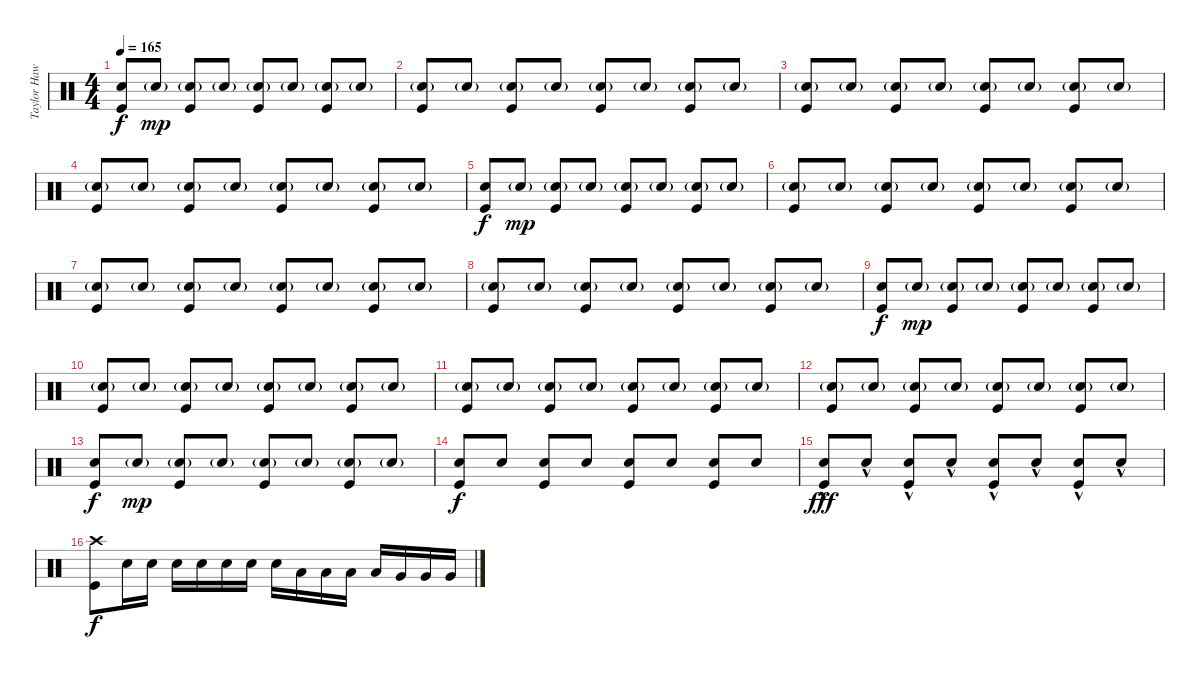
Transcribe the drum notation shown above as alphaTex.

\track ("Taylor Hawkins - Drums" "Taylor Haw") {instrument percussion}
\staff {score}
\articulation defaults
\ts (4 4)
\tempo 165
\clef neutral
\ks c
("Electric Snare (hit)" "Kick (hit)").8{dy f} "Electric Snare (hit)"{g}.8{dy mp} ("Electric Snare (hit)"{g} "Kick (hit)").8 "Electric Snare (hit)"{g}.8 ("Electric Snare (hit)"{g} "Kick (hit)").8 "Electric Snare (hit)"{g}.8 ("Electric Snare (hit)"{g} "Kick (hit)").8 "Electric Snare (hit)"{g}.8 |
("Electric Snare (hit)"{g} "Kick (hit)").8 "Electric Snare (hit)"{g}.8 ("Electric Snare (hit)"{g} "Kick (hit)").8 "Electric Snare (hit)"{g}.8 ("Electric Snare (hit)"{g} "Kick (hit)").8 "Electric Snare (hit)"{g}.8 ("Electric Snare (hit)"{g} "Kick (hit)").8 "Electric Snare (hit)"{g}.8 |
("Electric Snare (hit)"{g} "Kick (hit)").8 "Electric Snare (hit)"{g}.8 ("Electric Snare (hit)"{g} "Kick (hit)").8 "Electric Snare (hit)"{g}.8 ("Electric Snare (hit)"{g} "Kick (hit)").8 "Electric Snare (hit)"{g}.8 ("Electric Snare (hit)"{g} "Kick (hit)").8 "Electric Snare (hit)"{g}.8 |
("Electric Snare (hit)"{g} "Kick (hit)").8 "Electric Snare (hit)"{g}.8 ("Electric Snare (hit)"{g} "Kick (hit)").8 "Electric Snare (hit)"{g}.8 ("Electric Snare (hit)"{g} "Kick (hit)").8 "Electric Snare (hit)"{g}.8 ("Electric Snare (hit)"{g} "Kick (hit)").8 "Electric Snare (hit)"{g}.8 |
("Electric Snare (hit)" "Kick (hit)").8{dy f} "Electric Snare (hit)"{g}.8{dy mp} ("Electric Snare (hit)"{g} "Kick (hit)").8 "Electric Snare (hit)"{g}.8 ("Electric Snare (hit)"{g} "Kick (hit)").8 "Electric Snare (hit)"{g}.8 ("Electric Snare (hit)"{g} "Kick (hit)").8 "Electric Snare (hit)"{g}.8 |
("Electric Snare (hit)"{g} "Kick (hit)").8 "Electric Snare (hit)"{g}.8 ("Electric Snare (hit)"{g} "Kick (hit)").8 "Electric Snare (hit)"{g}.8 ("Electric Snare (hit)"{g} "Kick (hit)").8 "Electric Snare (hit)"{g}.8 ("Electric Snare (hit)"{g} "Kick (hit)").8 "Electric Snare (hit)"{g}.8 |
("Electric Snare (hit)"{g} "Kick (hit)").8 "Electric Snare (hit)"{g}.8 ("Electric Snare (hit)"{g} "Kick (hit)").8 "Electric Snare (hit)"{g}.8 ("Electric Snare (hit)"{g} "Kick (hit)").8 "Electric Snare (hit)"{g}.8 ("Electric Snare (hit)"{g} "Kick (hit)").8 "Electric Snare (hit)"{g}.8 |
("Electric Snare (hit)"{g} "Kick (hit)").8 "Electric Snare (hit)"{g}.8 ("Electric Snare (hit)"{g} "Kick (hit)").8 "Electric Snare (hit)"{g}.8 ("Electric Snare (hit)"{g} "Kick (hit)").8 "Electric Snare (hit)"{g}.8 ("Electric Snare (hit)"{g} "Kick (hit)").8 "Electric Snare (hit)"{g}.8 |
("Electric Snare (hit)" "Kick (hit)").8{dy f} "Electric Snare (hit)"{g}.8{dy mp} ("Electric Snare (hit)"{g} "Kick (hit)").8 "Electric Snare (hit)"{g}.8 ("Electric Snare (hit)"{g} "Kick (hit)").8 "Electric Snare (hit)"{g}.8 ("Electric Snare (hit)"{g} "Kick (hit)").8 "Electric Snare (hit)"{g}.8 |
("Electric Snare (hit)"{g} "Kick (hit)").8 "Electric Snare (hit)"{g}.8 ("Electric Snare (hit)"{g} "Kick (hit)").8 "Electric Snare (hit)"{g}.8 ("Electric Snare (hit)"{g} "Kick (hit)").8 "Electric Snare (hit)"{g}.8 ("Electric Snare (hit)"{g} "Kick (hit)").8 "Electric Snare (hit)"{g}.8 |
("Electric Snare (hit)"{g} "Kick (hit)").8 "Electric Snare (hit)"{g}.8 ("Electric Snare (hit)"{g} "Kick (hit)").8 "Electric Snare (hit)"{g}.8 ("Electric Snare (hit)"{g} "Kick (hit)").8 "Electric Snare (hit)"{g}.8 ("Electric Snare (hit)"{g} "Kick (hit)").8 "Electric Snare (hit)"{g}.8 |
("Electric Snare (hit)"{g} "Kick (hit)").8 "Electric Snare (hit)"{g}.8 ("Electric Snare (hit)"{g} "Kick (hit)").8 "Electric Snare (hit)"{g}.8 ("Electric Snare (hit)"{g} "Kick (hit)").8 "Electric Snare (hit)"{g}.8 ("Electric Snare (hit)"{g} "Kick (hit)").8 "Electric Snare (hit)"{g}.8 |
("Electric Snare (hit)" "Kick (hit)").8{dy f} "Electric Snare (hit)"{g}.8{dy mp} ("Electric Snare (hit)"{g} "Kick (hit)").8 "Electric Snare (hit)"{g}.8 ("Electric Snare (hit)"{g} "Kick (hit)").8 "Electric Snare (hit)"{g}.8 ("Electric Snare (hit)"{g} "Kick (hit)").8 "Electric Snare (hit)"{g}.8 |
("Electric Snare (hit)" "Kick (hit)").8{dy f} "Electric Snare (hit)".8 ("Electric Snare (hit)" "Kick (hit)").8 "Electric Snare (hit)".8 ("Electric Snare (hit)" "Kick (hit)").8 "Electric Snare (hit)".8 ("Electric Snare (hit)" "Kick (hit)").8 "Electric Snare (hit)".8 |
("Electric Snare (hit)"{hac} "Kick (hit)").8{dy fff} "Electric Snare (hit)"{hac}.8 ("Electric Snare (hit)"{hac} "Kick (hit)").8 "Electric Snare (hit)"{hac}.8 ("Electric Snare (hit)"{hac} "Kick (hit)").8 "Electric Snare (hit)"{hac}.8 ("Electric Snare (hit)"{hac} "Kick (hit)").8 "Electric Snare (hit)"{hac}.8 |
("Crash high (hit)" "Kick (hit)").8{dy f} "Electric Snare (hit)".16 "Electric Snare (hit)".16 "Electric Snare (hit)".16 "Electric Snare (hit)".16 "Electric Snare (hit)".16 "Electric Snare (hit)".16 "Electric Snare (hit)".16 "Low Tom (hit)".16 "Low Tom (hit)".16 "Low Tom (hit)".16 "Low Tom (hit)".16 "Very Low Tom (hit)".16 "Very Low Tom (hit)".16 "Very Low Tom (hit)".16
